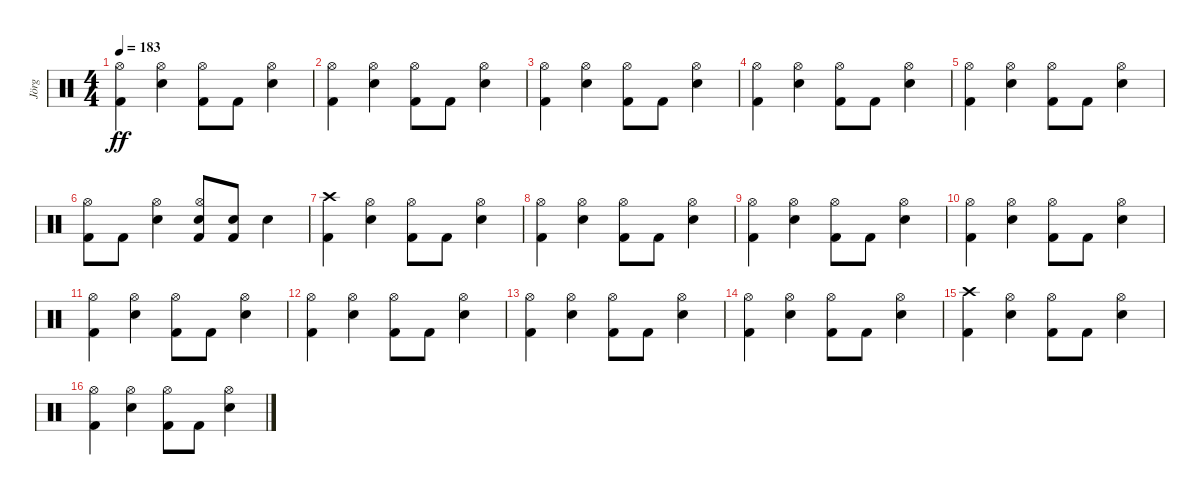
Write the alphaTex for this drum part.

\track ("Jörg" "Jörg") {instrument percussion}
\staff {score}
\articulation defaults
\ts (4 4)
\tempo 183
\clef neutral
\ks c
("Kick (hit) 2" "Hi-Hat (open)").4{dy ff} ("Snare (hit) 2" "Hi-Hat (open)").4 ("Kick (hit) 2" "Hi-Hat (open)").8 "Kick (hit) 2".8 ("Snare (hit) 2" "Hi-Hat (open)").4 |
("Kick (hit) 2" "Hi-Hat (open)").4 ("Snare (hit) 2" "Hi-Hat (open)").4 ("Kick (hit) 2" "Hi-Hat (open)").8 "Kick (hit) 2".8 ("Snare (hit) 2" "Hi-Hat (open)").4 |
("Kick (hit) 2" "Hi-Hat (open)").4 ("Snare (hit) 2" "Hi-Hat (open)").4 ("Kick (hit) 2" "Hi-Hat (open)").8 "Kick (hit) 2".8 ("Snare (hit) 2" "Hi-Hat (open)").4 |
("Kick (hit) 2" "Hi-Hat (open)").4 ("Snare (hit) 2" "Hi-Hat (open)").4 ("Kick (hit) 2" "Hi-Hat (open)").8 "Kick (hit) 2".8 ("Snare (hit) 2" "Hi-Hat (open)").4 |
("Kick (hit) 2" "Hi-Hat (open)").4 ("Snare (hit) 2" "Hi-Hat (open)").4 ("Kick (hit) 2" "Hi-Hat (open)").8 "Kick (hit) 2".8 ("Snare (hit) 2" "Hi-Hat (open)").4 |
("Kick (hit) 2" "Hi-Hat (open)").8 "Kick (hit) 2".8 ("Snare (hit) 2" "Hi-Hat (open)").4 ("Snare (hit) 2" "Kick (hit) 2" "Hi-Hat (open)").8 ("Snare (hit) 2" "Kick (hit) 2").8 "Snare (hit) 2".4 |
("Kick (hit) 2" "Crash high (hit)").4 ("Snare (hit) 2" "Hi-Hat (open)").4 ("Kick (hit) 2" "Hi-Hat (open)").8 "Kick (hit) 2".8 ("Snare (hit) 2" "Hi-Hat (open)").4 |
("Kick (hit) 2" "Hi-Hat (open)").4 ("Snare (hit) 2" "Hi-Hat (open)").4 ("Kick (hit) 2" "Hi-Hat (open)").8 "Kick (hit) 2".8 ("Snare (hit) 2" "Hi-Hat (open)").4 |
("Kick (hit) 2" "Hi-Hat (open)").4 ("Snare (hit) 2" "Hi-Hat (open)").4 ("Kick (hit) 2" "Hi-Hat (open)").8 "Kick (hit) 2".8 ("Snare (hit) 2" "Hi-Hat (open)").4 |
("Kick (hit) 2" "Hi-Hat (open)").4 ("Snare (hit) 2" "Hi-Hat (open)").4 ("Kick (hit) 2" "Hi-Hat (open)").8 "Kick (hit) 2".8 ("Snare (hit) 2" "Hi-Hat (open)").4 |
("Kick (hit) 2" "Hi-Hat (open)").4 ("Snare (hit) 2" "Hi-Hat (open)").4 ("Kick (hit) 2" "Hi-Hat (open)").8 "Kick (hit) 2".8 ("Snare (hit) 2" "Hi-Hat (open)").4 |
("Kick (hit) 2" "Hi-Hat (open)").4 ("Snare (hit) 2" "Hi-Hat (open)").4 ("Kick (hit) 2" "Hi-Hat (open)").8 "Kick (hit) 2".8 ("Snare (hit) 2" "Hi-Hat (open)").4 |
("Kick (hit) 2" "Hi-Hat (open)").4 ("Snare (hit) 2" "Hi-Hat (open)").4 ("Kick (hit) 2" "Hi-Hat (open)").8 "Kick (hit) 2".8 ("Snare (hit) 2" "Hi-Hat (open)").4 |
("Kick (hit) 2" "Hi-Hat (open)").4 ("Snare (hit) 2" "Hi-Hat (open)").4 ("Kick (hit) 2" "Hi-Hat (open)").8 "Kick (hit) 2".8 ("Snare (hit) 2" "Hi-Hat (open)").4 |
("Kick (hit) 2" "Crash high (hit)").4 ("Snare (hit) 2" "Hi-Hat (open)").4 ("Kick (hit) 2" "Hi-Hat (open)").8 "Kick (hit) 2".8 ("Snare (hit) 2" "Hi-Hat (open)").4 |
("Kick (hit) 2" "Hi-Hat (open)").4 ("Snare (hit) 2" "Hi-Hat (open)").4 ("Kick (hit) 2" "Hi-Hat (open)").8 "Kick (hit) 2".8 ("Snare (hit) 2" "Hi-Hat (open)").4
